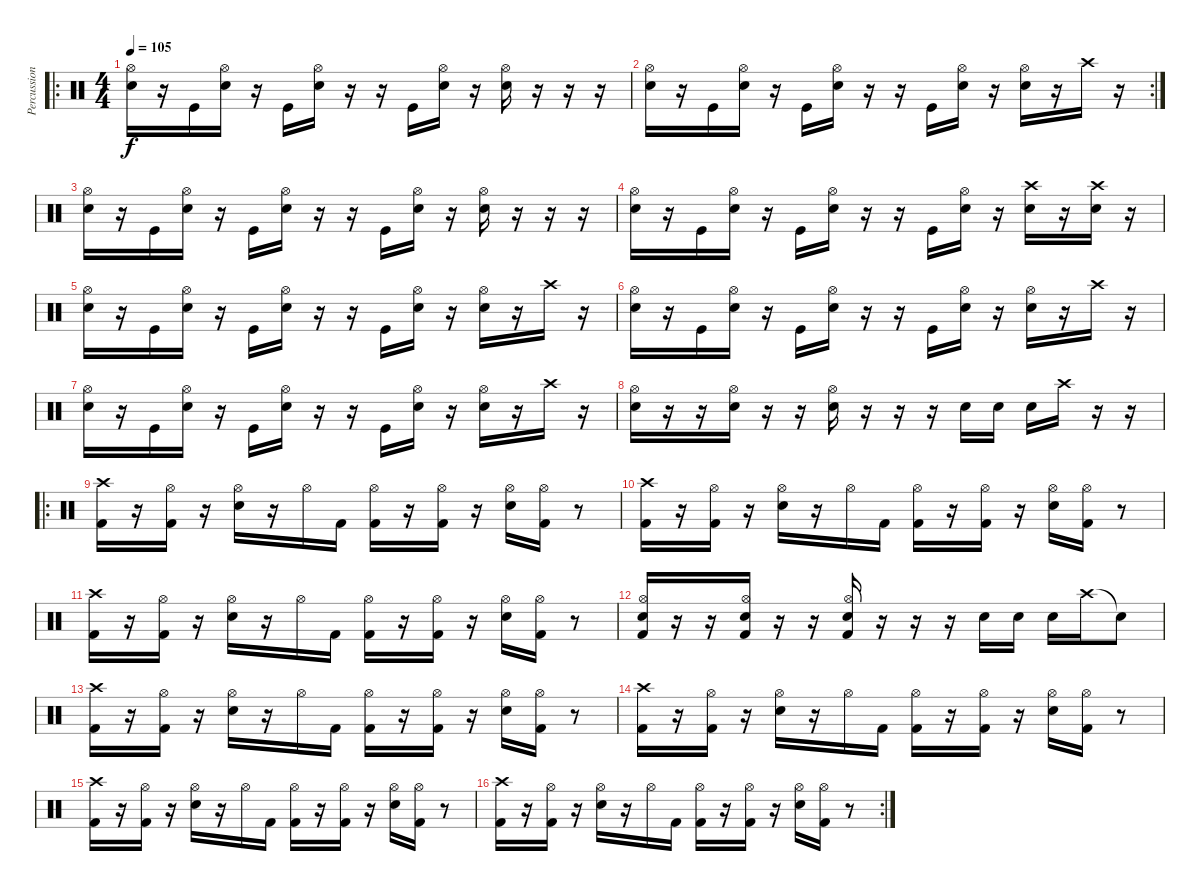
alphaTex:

\track ("Percussions" "Percussion") {instrument percussion}
\staff {score}
\articulation defaults
\ro
\ts (4 4)
\tempo 105
\clef neutral
\ks c
("Snare (hit) 2" "Hi-Hat (open)").16{dy f} r.16 "Kick (hit)".16 ("Snare (hit) 2" "Hi-Hat (open)").16 r.16 "Kick (hit)".16 ("Snare (hit) 2" "Hi-Hat (open)").16 r.16 r.16 "Kick (hit)".16 ("Snare (hit) 2" "Hi-Hat (open)").16 r.16 ("Snare (hit) 2" "Hi-Hat (open)").16 r.16 r.16 r.16 |
\rc 2
("Snare (hit) 2" "Hi-Hat (open)").16 r.16 "Kick (hit)".16 ("Snare (hit) 2" "Hi-Hat (open)").16 r.16 "Kick (hit)".16 ("Snare (hit) 2" "Hi-Hat (open)").16 r.16 r.16 "Kick (hit)".16 ("Snare (hit) 2" "Hi-Hat (open)").16 r.16 ("Snare (hit) 2" "Hi-Hat (open)").16 r.16 "Crash high (hit)".16 r.16 |
("Snare (hit) 2" "Hi-Hat (open)").16 r.16 "Kick (hit)".16 ("Snare (hit) 2" "Hi-Hat (open)").16 r.16 "Kick (hit)".16 ("Snare (hit) 2" "Hi-Hat (open)").16 r.16 r.16 "Kick (hit)".16 ("Snare (hit) 2" "Hi-Hat (open)").16 r.16 ("Snare (hit) 2" "Hi-Hat (open)").16 r.16 r.16 r.16 |
("Snare (hit) 2" "Hi-Hat (open)").16 r.16 "Kick (hit)".16 ("Snare (hit) 2" "Hi-Hat (open)").16 r.16 "Kick (hit)".16 ("Snare (hit) 2" "Hi-Hat (open)").16 r.16 r.16 "Kick (hit)".16 ("Snare (hit) 2" "Hi-Hat (open)").16 r.16 ("Snare (hit) 2" "Crash high (hit)").16 r.16 ("Snare (hit) 2" "Crash high (hit)").16 r.16 |
("Snare (hit) 2" "Hi-Hat (open)").16 r.16 "Kick (hit)".16 ("Snare (hit) 2" "Hi-Hat (open)").16 r.16 "Kick (hit)".16 ("Snare (hit) 2" "Hi-Hat (open)").16 r.16 r.16 "Kick (hit)".16 ("Snare (hit) 2" "Hi-Hat (open)").16 r.16 ("Snare (hit) 2" "Hi-Hat (open)").16 r.16 "Crash high (hit)".16 r.16 |
("Snare (hit) 2" "Hi-Hat (open)").16 r.16 "Kick (hit)".16 ("Snare (hit) 2" "Hi-Hat (open)").16 r.16 "Kick (hit)".16 ("Snare (hit) 2" "Hi-Hat (open)").16 r.16 r.16 "Kick (hit)".16 ("Snare (hit) 2" "Hi-Hat (open)").16 r.16 ("Snare (hit) 2" "Hi-Hat (open)").16 r.16 "Crash high (hit)".16 r.16 |
("Snare (hit) 2" "Hi-Hat (open)").16 r.16 "Kick (hit)".16 ("Snare (hit) 2" "Hi-Hat (open)").16 r.16 "Kick (hit)".16 ("Snare (hit) 2" "Hi-Hat (open)").16 r.16 r.16 "Kick (hit)".16 ("Snare (hit) 2" "Hi-Hat (open)").16 r.16 ("Snare (hit) 2" "Hi-Hat (open)").16 r.16 "Crash high (hit)".16 r.16 |
("Snare (hit) 2" "Hi-Hat (open)").16 r.16 r.16 ("Snare (hit) 2" "Hi-Hat (open)").16 r.16 r.16 ("Snare (hit) 2" "Hi-Hat (open)").16 r.16 r.16 r.16 "Snare (hit) 2".16 "Snare (hit) 2".16 "Snare (hit) 2".16 "Crash high (hit)".16 r.16 r.16 |
\ro
("Crash high (hit)" "Kick (hit) 2").16 r.16 ("Hi-Hat (open)" "Kick (hit) 2").16 r.16 ("Hi-Hat (open)" "Snare (hit) 2").16 r.16 "Hi-Hat (open)".16 "Kick (hit) 2".16 ("Kick (hit) 2" "Hi-Hat (open)").16 r.16 ("Kick (hit) 2" "Hi-Hat (open)").16 r.16 ("Hi-Hat (open)" "Snare (hit) 2").16 ("Kick (hit) 2" "Hi-Hat (open)").16 r.8 |
("Crash high (hit)" "Kick (hit) 2").16 r.16 ("Hi-Hat (open)" "Kick (hit) 2").16 r.16 ("Hi-Hat (open)" "Snare (hit) 2").16 r.16 "Hi-Hat (open)".16 "Kick (hit) 2".16 ("Kick (hit) 2" "Hi-Hat (open)").16 r.16 ("Kick (hit) 2" "Hi-Hat (open)").16 r.16 ("Hi-Hat (open)" "Snare (hit) 2").16 ("Kick (hit) 2" "Hi-Hat (open)").16 r.8 |
("Crash high (hit)" "Kick (hit) 2").16 r.16 ("Hi-Hat (open)" "Kick (hit) 2").16 r.16 ("Hi-Hat (open)" "Snare (hit) 2").16 r.16 "Hi-Hat (open)".16 "Kick (hit) 2".16 ("Kick (hit) 2" "Hi-Hat (open)").16 r.16 ("Kick (hit) 2" "Hi-Hat (open)").16 r.16 ("Hi-Hat (open)" "Snare (hit) 2").16 ("Kick (hit) 2" "Hi-Hat (open)").16 r.8 |
("Kick (hit) 2" "Snare (hit) 2" "Hi-Hat (open)").16 r.16 r.16 ("Kick (hit) 2" "Snare (hit) 2" "Hi-Hat (open)").16 r.16 r.16 ("Kick (hit) 2" "Snare (hit) 2" "Hi-Hat (open)").16 r.16 r.16 r.16 "Snare (hit) 2".16 "Snare (hit) 2".16 "Snare (hit) 2".16 "Crash high (hit)".16 "Snare (hit)"{t}.8 |
("Crash high (hit)" "Kick (hit) 2").16 r.16 ("Hi-Hat (open)" "Kick (hit) 2").16 r.16 ("Hi-Hat (open)" "Snare (hit) 2").16 r.16 "Hi-Hat (open)".16 "Kick (hit) 2".16 ("Kick (hit) 2" "Hi-Hat (open)").16 r.16 ("Kick (hit) 2" "Hi-Hat (open)").16 r.16 ("Hi-Hat (open)" "Snare (hit) 2").16 ("Kick (hit) 2" "Hi-Hat (open)").16 r.8 |
("Crash high (hit)" "Kick (hit) 2").16 r.16 ("Hi-Hat (open)" "Kick (hit) 2").16 r.16 ("Hi-Hat (open)" "Snare (hit) 2").16 r.16 "Hi-Hat (open)".16 "Kick (hit) 2".16 ("Kick (hit) 2" "Hi-Hat (open)").16 r.16 ("Kick (hit) 2" "Hi-Hat (open)").16 r.16 ("Hi-Hat (open)" "Snare (hit) 2").16 ("Kick (hit) 2" "Hi-Hat (open)").16 r.8 |
("Crash high (hit)" "Kick (hit) 2").16 r.16 ("Hi-Hat (open)" "Kick (hit) 2").16 r.16 ("Hi-Hat (open)" "Snare (hit) 2").16 r.16 "Hi-Hat (open)".16 "Kick (hit) 2".16 ("Kick (hit) 2" "Hi-Hat (open)").16 r.16 ("Kick (hit) 2" "Hi-Hat (open)").16 r.16 ("Hi-Hat (open)" "Snare (hit) 2").16 ("Kick (hit) 2" "Hi-Hat (open)").16 r.8 |
\rc 2
("Crash high (hit)" "Kick (hit) 2").16 r.16 ("Hi-Hat (open)" "Kick (hit) 2").16 r.16 ("Hi-Hat (open)" "Snare (hit) 2").16 r.16 "Hi-Hat (open)".16 "Kick (hit) 2".16 ("Kick (hit) 2" "Hi-Hat (open)").16 r.16 ("Kick (hit) 2" "Hi-Hat (open)").16 r.16 ("Hi-Hat (open)" "Snare (hit) 2").16 ("Kick (hit) 2" "Hi-Hat (open)").16 r.8
